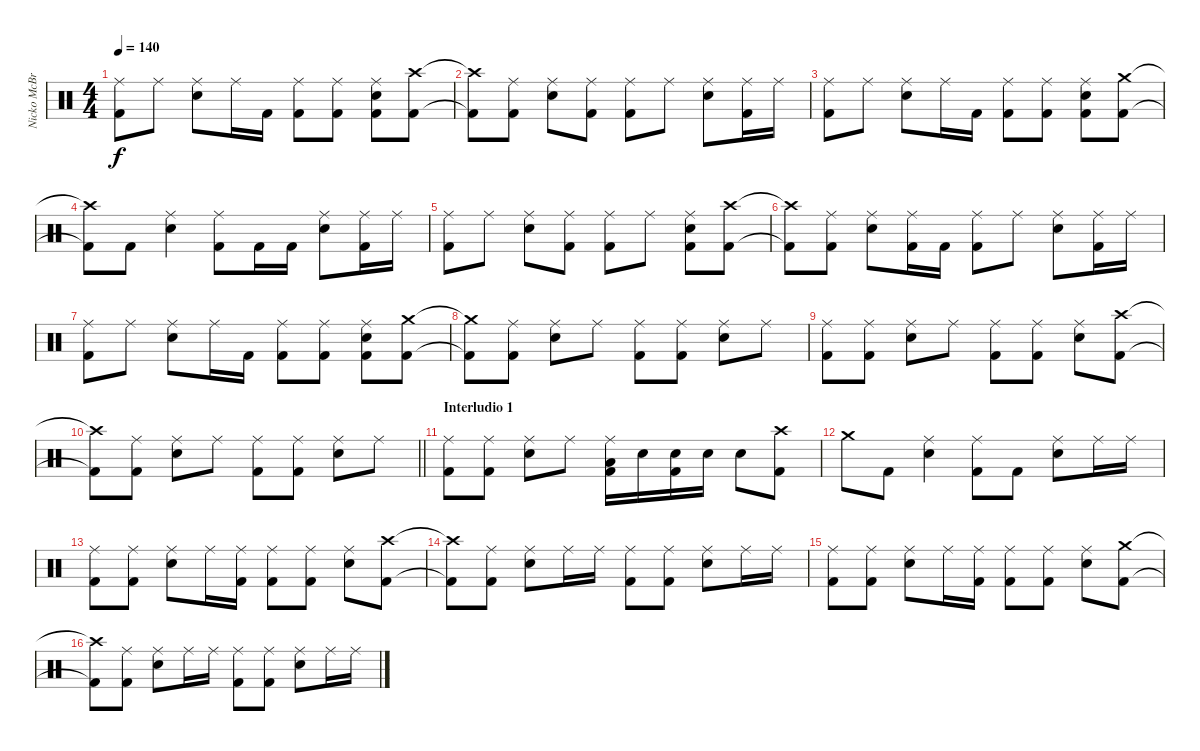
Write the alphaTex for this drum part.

\track ("Nicko McBrain" "Nicko McBr") {instrument percussion}
\staff {score}
\articulation defaults
\ts (4 4)
\tempo 140
\clef neutral
\ks c
("Ride (middle)" "Kick (hit) 2").8{dy f} "Ride (middle)".8 ("Ride (middle)" "Snare (hit) 2").8 "Ride (middle)".16 "Kick (hit) 2".16 ("Ride (middle)" "Kick (hit) 2").8 ("Ride (middle)" "Kick (hit) 2").8 ("Ride (middle)" "Snare (hit) 2" "Kick (hit) 2").8 ("Crash high (hit)" "Kick (hit) 2").8 |
("Crash high (hit)"{t} "Kick (hit) 2"{t}).8 ("Ride (middle)" "Kick (hit) 2").8 ("Ride (middle)" "Snare (hit) 2").8 ("Ride (middle)" "Kick (hit) 2").8 ("Ride (middle)" "Kick (hit) 2").8 "Ride (middle)".8 ("Ride (middle)" "Snare (hit) 2").8 ("Ride (middle)" "Kick (hit) 2").16 "Ride (middle)".16 |
("Ride (middle)" "Kick (hit) 2").8 "Ride (middle)".8 ("Ride (middle)" "Snare (hit) 2").8 "Ride (middle)".16 "Kick (hit) 2".16 ("Ride (middle)" "Kick (hit) 2").8 ("Ride (middle)" "Kick (hit) 2").8 ("Ride (middle)" "Snare (hit) 2" "Kick (hit) 2").8 ("Crash medium (hit)" "Kick (hit) 2").8 |
("Crash high (hit)"{t} "Kick (hit) 2"{t}).8 "Kick (hit) 2".8 ("Ride (middle)" "Snare (hit) 2").4 ("Ride (middle)" "Kick (hit) 2").8 "Kick (hit) 2".16 "Kick (hit) 2".16 ("Ride (middle)" "Snare (hit) 2").8 ("Ride (middle)" "Kick (hit) 2").16 "Ride (middle)".16 |
("Ride (middle)" "Kick (hit) 2").8 "Ride (middle)".8 ("Ride (middle)" "Snare (hit) 2").8 ("Ride (middle)" "Kick (hit) 2").8 ("Ride (middle)" "Kick (hit) 2").8 "Ride (middle)".8 ("Ride (middle)" "Snare (hit) 2" "Kick (hit) 2").8 ("Crash high (hit)" "Kick (hit) 2").8 |
("Crash high (hit)"{t} "Kick (hit) 2"{t}).8 ("Ride (middle)" "Kick (hit) 2").8 ("Ride (middle)" "Snare (hit) 2").8 ("Ride (middle)" "Kick (hit) 2").16 "Kick (hit) 2".16 ("Ride (middle)" "Kick (hit) 2").8 "Ride (middle)".8 ("Ride (middle)" "Snare (hit) 2").8 ("Ride (middle)" "Kick (hit) 2").16 "Ride (middle)".16 |
("Ride (middle)" "Kick (hit) 2").8 "Ride (middle)".8 ("Ride (middle)" "Snare (hit) 2").8 "Ride (middle)".16 "Kick (hit) 2".16 ("Ride (middle)" "Kick (hit) 2").8 ("Ride (middle)" "Kick (hit) 2").8 ("Ride (middle)" "Snare (hit) 2" "Kick (hit) 2").8 ("Crash medium (hit)" "Kick (hit) 2").8 |
("Crash medium (hit)"{t} "Kick (hit) 2"{t}).8 ("Ride (middle)" "Kick (hit) 2").8 ("Ride (middle)" "Snare (hit) 2").8 "Ride (middle)".8 ("Ride (middle)" "Kick (hit) 2").8 ("Ride (middle)" "Kick (hit) 2").8 ("Ride (middle)" "Snare (hit) 2").8 "Ride (middle)".8 |
("Ride (middle)" "Kick (hit) 2").8 ("Ride (middle)" "Kick (hit) 2").8 ("Ride (middle)" "Snare (hit) 2").8 "Ride (middle)".8 ("Ride (middle)" "Kick (hit) 2").8 ("Ride (middle)" "Kick (hit) 2").8 ("Ride (middle)" "Snare (hit) 2").8 ("Crash high (hit)" "Kick (hit) 2").8 |
\barLineRight lightlight
("Crash high (hit)"{t} "Kick (hit) 2"{t}).8 ("Ride (middle)" "Kick (hit) 2").8 ("Ride (middle)" "Snare (hit) 2").8 "Ride (middle)".8 ("Ride (middle)" "Kick (hit) 2").8 ("Ride (middle)" "Kick (hit) 2").8 ("Ride (middle)" "Snare (hit) 2").8 "Ride (middle)".8 |
\section ("" "Interludio 1")
("Ride (middle)" "Kick (hit) 2").8 ("Ride (middle)" "Kick (hit) 2").8 ("Ride (middle)" "Snare (hit) 2").8 "Ride (middle)".8 ("Ride (middle)" "Low Tom (hit)" "Kick (hit) 2").16 "Snare (hit) 2".16 ("Snare (hit) 2" "Kick (hit) 2").16 "Snare (hit) 2".16 "Snare (hit) 2".8 ("Crash high (hit)" "Kick (hit) 2").8 |
"Crash medium (hit)".8 "Kick (hit) 2".8 ("Ride (middle)" "Snare (hit) 2").4 ("Ride (middle)" "Kick (hit) 2").8 "Kick (hit) 2".8 ("Ride (middle)" "Snare (hit) 2").8 "Ride (middle)".16 "Ride (middle)".16 |
("Ride (middle)" "Kick (hit) 2").8 ("Ride (middle)" "Kick (hit) 2").8 ("Ride (middle)" "Snare (hit) 2").8 "Ride (middle)".16 ("Ride (middle)" "Kick (hit) 2").16 ("Ride (middle)" "Kick (hit) 2").8 ("Ride (middle)" "Kick (hit) 2").8 ("Ride (middle)" "Snare (hit) 2").8 ("Crash high (hit)" "Kick (hit) 2").8 |
("Crash high (hit)"{t} "Kick (hit) 2"{t}).8 ("Ride (middle)" "Kick (hit) 2").8 ("Ride (middle)" "Snare (hit) 2").8 "Ride (middle)".16 "Ride (middle)".16 ("Ride (middle)" "Kick (hit) 2").8 ("Ride (middle)" "Kick (hit) 2").8 ("Ride (middle)" "Snare (hit) 2").8 "Ride (middle)".16 "Ride (middle)".16 |
("Ride (middle)" "Kick (hit) 2").8 ("Ride (middle)" "Kick (hit) 2").8 ("Ride (middle)" "Snare (hit) 2").8 "Ride (middle)".16 ("Ride (middle)" "Kick (hit) 2").16 ("Ride (middle)" "Kick (hit) 2").8 ("Ride (middle)" "Kick (hit) 2").8 ("Ride (middle)" "Snare (hit) 2").8 ("Crash medium (hit)" "Kick (hit) 2").8 |
("Crash high (hit)"{t} "Kick (hit) 2"{t}).8 ("Ride (middle)" "Kick (hit) 2").8 ("Ride (middle)" "Snare (hit) 2").8 "Ride (middle)".16 "Ride (middle)".16 ("Ride (middle)" "Kick (hit) 2").8 ("Ride (middle)" "Kick (hit) 2").8 ("Ride (middle)" "Snare (hit) 2").8 "Ride (middle)".16 "Ride (middle)".16
